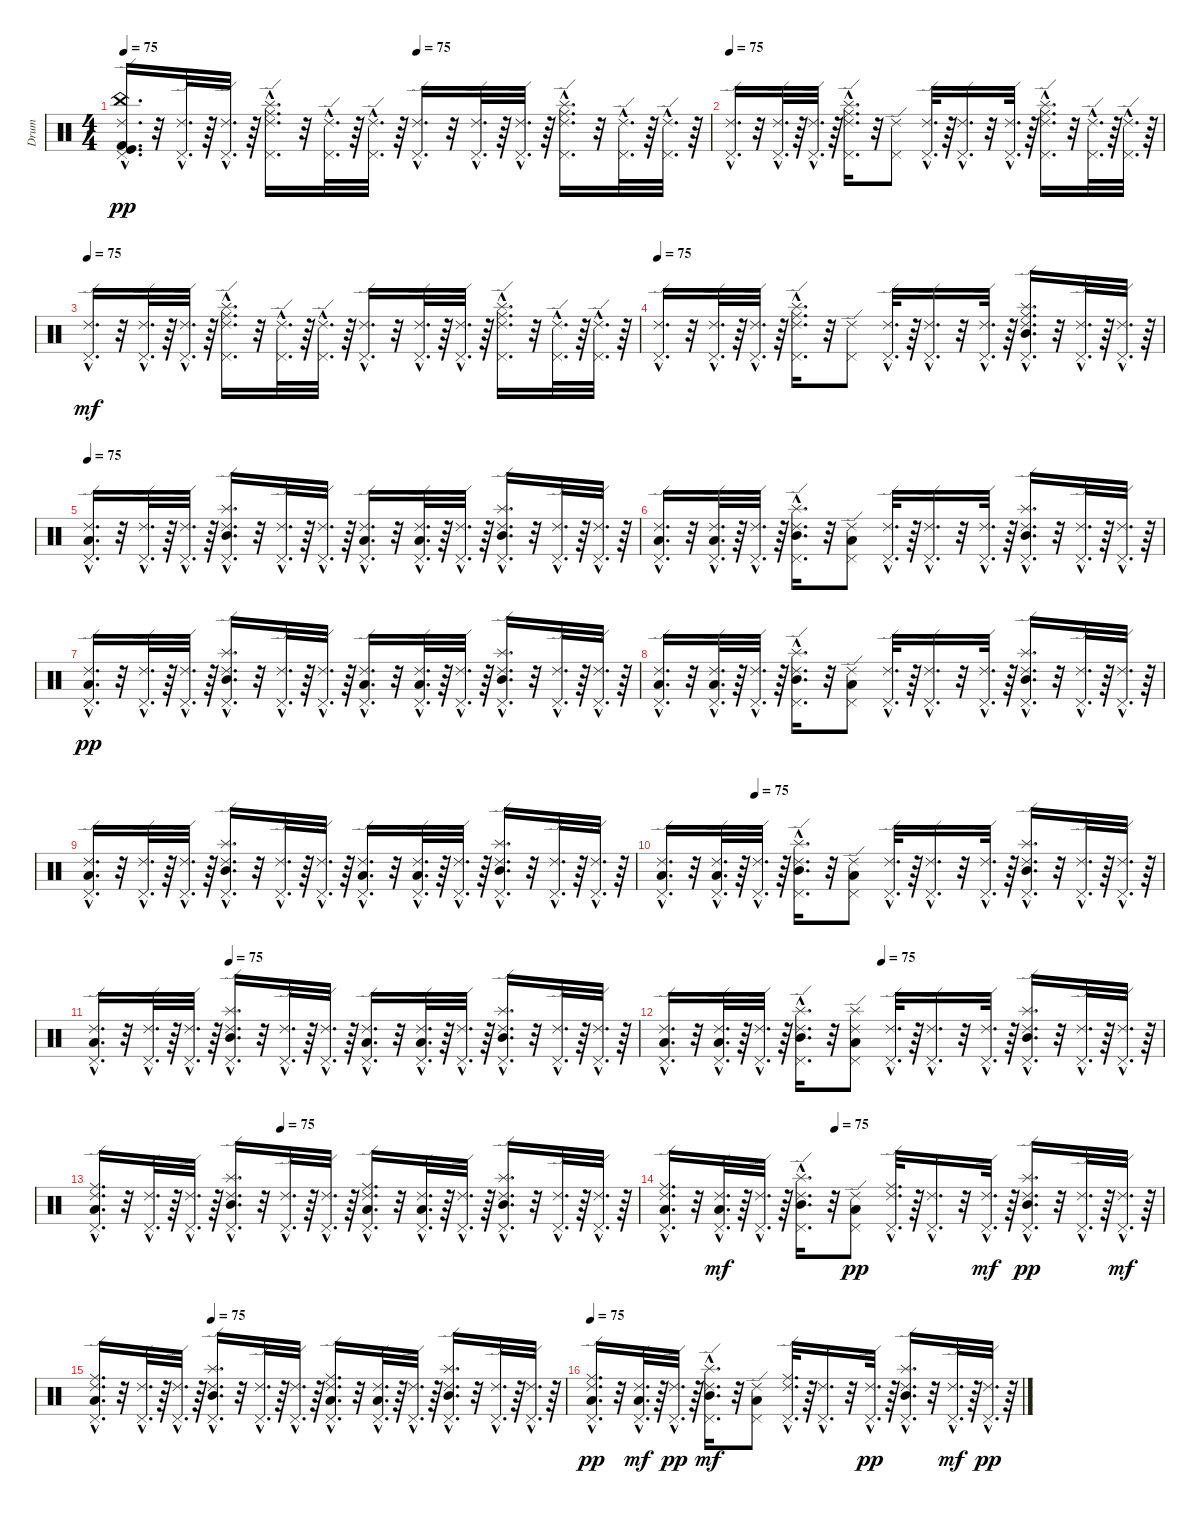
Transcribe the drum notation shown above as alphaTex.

\track ("Drum" "Drum") {instrument percussion}
\staff {score}
\articulation defaults
\ts (4 4)
\tempo 75
\tempo (75 0.5)
\clef neutral
\ks c
("Kick (hit) 2"{hac} "Kick (hit)"{hac} "China (hit)"{hac} "Ride (edge) 2"{hac} "Pedal Hi-Hat (hit)"{hac}).16{d dy pp} r.32 ("Ride (edge) 2"{hac} "Pedal Hi-Hat (hit)"{hac}).32{d} r.64 ("Ride (edge) 2"{hac} "Pedal Hi-Hat (hit)"{hac}).32{d} r.64 ("Ride (middle)"{hac} "Ride (edge) 2"{hac} "Pedal Hi-Hat (hit)"{hac} "Splash (hit)"{hac}).16{d} r.32 ("Ride (edge) 2"{hac} "Pedal Hi-Hat (hit)"{hac}).32{d} r.64 ("Ride (edge) 2"{hac} "Pedal Hi-Hat (hit)"{hac}).32{d} r.64 ("Ride (edge) 2"{hac} "Pedal Hi-Hat (hit)"{hac}).16{d} r.32 ("Ride (edge) 2"{hac} "Pedal Hi-Hat (hit)"{hac}).32{d} r.64 ("Ride (edge) 2"{hac} "Pedal Hi-Hat (hit)"{hac}).32{d} r.64 ("Ride (middle)"{hac} "Ride (edge) 2"{hac} "Pedal Hi-Hat (hit)"{hac} "Splash (hit)"{hac}).16{d} r.32 ("Ride (edge) 2"{hac} "Pedal Hi-Hat (hit)"{hac}).32{d} r.64 ("Ride (edge) 2"{hac} "Pedal Hi-Hat (hit)"{hac}).32{d} r.64 |
\tempo 75
("Ride (edge) 2"{hac} "Pedal Hi-Hat (hit)"{hac}).16{d} r.32 ("Ride (edge) 2"{hac} "Pedal Hi-Hat (hit)"{hac}).32{d} r.64 ("Ride (edge) 2"{hac} "Pedal Hi-Hat (hit)"{hac}).32{d} r.64 ("Ride (middle)"{hac} "Ride (edge) 2"{hac} "Pedal Hi-Hat (hit)"{hac} "Splash (hit)"{hac}).16{d} r.32 ("Ride (edge) 2" "Pedal Hi-Hat (hit)").8 ("Ride (edge) 2"{hac} "Pedal Hi-Hat (hit)"{hac}).32{d} r.64 ("Ride (edge) 2"{hac} "Pedal Hi-Hat (hit)"{hac}).16{d} r.32 ("Ride (edge) 2"{hac} "Pedal Hi-Hat (hit)"{hac}).32{d} r.64 ("Ride (middle)"{hac} "Ride (edge) 2"{hac} "Pedal Hi-Hat (hit)"{hac} "Splash (hit)"{hac}).16{d} r.32 ("Ride (edge) 2"{hac} "Pedal Hi-Hat (hit)"{hac}).32{d} r.64 ("Ride (edge) 2"{hac} "Pedal Hi-Hat (hit)"{hac}).32{d} r.64 |
\tempo 75
("Pedal Hi-Hat (hit)"{hac} "Ride (edge) 2"{hac}).16{d dy mf} r.32 ("Pedal Hi-Hat (hit)"{hac} "Ride (edge) 2"{hac}).32{d} r.64 ("Pedal Hi-Hat (hit)"{hac} "Ride (edge) 2"{hac}).32{d} r.64 ("Splash (hit)"{hac} "Pedal Hi-Hat (hit)"{hac} "Ride (edge) 2"{hac} "Ride (middle)"{hac}).16{d} r.32 ("Pedal Hi-Hat (hit)"{hac} "Ride (edge) 2"{hac}).32{d} r.64 ("Pedal Hi-Hat (hit)"{hac} "Ride (edge) 2"{hac}).32{d} r.64 ("Pedal Hi-Hat (hit)"{hac} "Ride (edge) 2"{hac}).16{d} r.32 ("Pedal Hi-Hat (hit)"{hac} "Ride (edge) 2"{hac}).32{d} r.64 ("Pedal Hi-Hat (hit)"{hac} "Ride (edge) 2"{hac}).32{d} r.64 ("Splash (hit)"{hac} "Pedal Hi-Hat (hit)"{hac} "Ride (edge) 2"{hac} "Ride (middle)"{hac}).16{d} r.32 ("Pedal Hi-Hat (hit)"{hac} "Ride (edge) 2"{hac}).32{d} r.64 ("Pedal Hi-Hat (hit)"{hac} "Ride (edge) 2"{hac}).32{d} r.64 |
\tempo 75
("Pedal Hi-Hat (hit)"{hac} "Ride (edge) 2"{hac}).16{d} r.32 ("Pedal Hi-Hat (hit)"{hac} "Ride (edge) 2"{hac}).32{d} r.64 ("Pedal Hi-Hat (hit)"{hac} "Ride (edge) 2"{hac}).32{d} r.64 ("Splash (hit)"{hac} "Pedal Hi-Hat (hit)"{hac} "Ride (edge) 2"{hac} "Ride (middle)"{hac}).16{d} r.32 ("Pedal Hi-Hat (hit)" "Ride (edge) 2").8 ("Pedal Hi-Hat (hit)"{hac} "Ride (edge) 2"{hac}).32{d} r.64 ("Pedal Hi-Hat (hit)"{hac} "Ride (edge) 2"{hac}).16{d} r.32 ("Pedal Hi-Hat (hit)"{hac} "Ride (edge) 2"{hac}).32{d} r.64 ("Mid Tom (hit)"{hac} "Splash (hit)"{hac} "Pedal Hi-Hat (hit)"{hac} "Ride (edge) 2"{hac} "Ride (middle)"{hac}).16{d} r.32 ("Pedal Hi-Hat (hit)"{hac} "Ride (edge) 2"{hac}).32{d} r.64 ("Pedal Hi-Hat (hit)"{hac} "Ride (edge) 2"{hac}).32{d} r.64 |
\tempo 75
("Low Tom (hit)"{hac} "Pedal Hi-Hat (hit)"{hac} "Ride (edge) 2"{hac}).16{d} r.32 ("Pedal Hi-Hat (hit)"{hac} "Ride (edge) 2"{hac}).32{d} r.64 ("Pedal Hi-Hat (hit)"{hac} "Ride (edge) 2"{hac}).32{d} r.64 ("Mid Tom (hit)"{hac} "Splash (hit)"{hac} "Pedal Hi-Hat (hit)"{hac} "Ride (edge) 2"{hac}).16{d} r.32 ("Pedal Hi-Hat (hit)"{hac} "Ride (edge) 2"{hac}).32{d} r.64 ("Pedal Hi-Hat (hit)"{hac} "Ride (edge) 2"{hac}).32{d} r.64 ("Low Tom (hit)"{hac} "Pedal Hi-Hat (hit)"{hac} "Ride (edge) 2"{hac}).16{d} r.32 ("Low Tom (hit)"{hac} "Pedal Hi-Hat (hit)"{hac} "Ride (edge) 2"{hac}).32{d} r.64 ("Pedal Hi-Hat (hit)"{hac} "Ride (edge) 2"{hac}).32{d} r.64 ("Mid Tom (hit)"{hac} "Splash (hit)"{hac} "Pedal Hi-Hat (hit)"{hac} "Ride (edge) 2"{hac}).16{d} r.32 ("Pedal Hi-Hat (hit)"{hac} "Ride (edge) 2"{hac}).32{d} r.64 ("Pedal Hi-Hat (hit)"{hac} "Ride (edge) 2"{hac}).32{d} r.64 |
("Low Tom (hit)"{hac} "Pedal Hi-Hat (hit)"{hac} "Ride (edge) 2"{hac}).16{d} r.32 ("Low Tom (hit)"{hac} "Pedal Hi-Hat (hit)"{hac} "Ride (edge) 2"{hac}).32{d} r.64 ("Pedal Hi-Hat (hit)"{hac} "Ride (edge) 2"{hac}).32{d} r.64 ("Mid Tom (hit)"{hac} "Splash (hit)"{hac} "Pedal Hi-Hat (hit)"{hac} "Ride (edge) 2"{hac}).16{d} r.32 ("Low Tom (hit)" "Pedal Hi-Hat (hit)" "Ride (edge) 2").8 ("Pedal Hi-Hat (hit)"{hac} "Ride (edge) 2"{hac}).32{d} r.64 ("Pedal Hi-Hat (hit)"{hac} "Ride (edge) 2"{hac}).16{d} r.32 ("Pedal Hi-Hat (hit)"{hac} "Ride (edge) 2"{hac}).32{d} r.64 ("Mid Tom (hit)"{hac} "Splash (hit)"{hac} "Pedal Hi-Hat (hit)"{hac} "Ride (edge) 2"{hac}).16{d} r.32 ("Pedal Hi-Hat (hit)"{hac} "Ride (edge) 2"{hac}).32{d} r.64 ("Pedal Hi-Hat (hit)"{hac} "Ride (edge) 2"{hac}).32{d} r.64 |
("Ride (edge) 2"{hac} "Pedal Hi-Hat (hit)"{hac} "Low Tom (hit)"{hac}).16{d dy pp} r.32 ("Ride (edge) 2"{hac} "Pedal Hi-Hat (hit)"{hac}).32{d} r.64 ("Ride (edge) 2"{hac} "Pedal Hi-Hat (hit)"{hac}).32{d} r.64 ("Ride (edge) 2"{hac} "Pedal Hi-Hat (hit)"{hac} "Splash (hit)"{hac} "Mid Tom (hit)"{hac}).16{d} r.32 ("Ride (edge) 2"{hac} "Pedal Hi-Hat (hit)"{hac}).32{d} r.64 ("Ride (edge) 2"{hac} "Pedal Hi-Hat (hit)"{hac}).32{d} r.64 ("Ride (edge) 2"{hac} "Pedal Hi-Hat (hit)"{hac} "Low Tom (hit)"{hac}).16{d} r.32 ("Ride (edge) 2"{hac} "Pedal Hi-Hat (hit)"{hac} "Low Tom (hit)"{hac}).32{d} r.64 ("Ride (edge) 2"{hac} "Pedal Hi-Hat (hit)"{hac}).32{d} r.64 ("Ride (edge) 2"{hac} "Pedal Hi-Hat (hit)"{hac} "Splash (hit)"{hac} "Mid Tom (hit)"{hac}).16{d} r.32 ("Ride (edge) 2"{hac} "Pedal Hi-Hat (hit)"{hac}).32{d} r.64 ("Ride (edge) 2"{hac} "Pedal Hi-Hat (hit)"{hac}).32{d} r.64 |
("Ride (edge) 2"{hac} "Pedal Hi-Hat (hit)"{hac} "Low Tom (hit)"{hac}).16{d} r.32 ("Ride (edge) 2"{hac} "Pedal Hi-Hat (hit)"{hac} "Low Tom (hit)"{hac}).32{d} r.64 ("Ride (edge) 2"{hac} "Pedal Hi-Hat (hit)"{hac}).32{d} r.64 ("Ride (edge) 2"{hac} "Pedal Hi-Hat (hit)"{hac} "Splash (hit)"{hac} "Mid Tom (hit)"{hac}).16{d} r.32 ("Ride (edge) 2" "Pedal Hi-Hat (hit)" "Low Tom (hit)").8 ("Ride (edge) 2"{hac} "Pedal Hi-Hat (hit)"{hac}).32{d} r.64 ("Ride (edge) 2"{hac} "Pedal Hi-Hat (hit)"{hac}).16{d} r.32 ("Ride (edge) 2"{hac} "Pedal Hi-Hat (hit)"{hac}).32{d} r.64 ("Ride (edge) 2"{hac} "Pedal Hi-Hat (hit)"{hac} "Splash (hit)"{hac} "Mid Tom (hit)"{hac}).16{d} r.32 ("Ride (edge) 2"{hac} "Pedal Hi-Hat (hit)"{hac}).32{d} r.64 ("Ride (edge) 2"{hac} "Pedal Hi-Hat (hit)"{hac}).32{d} r.64 |
("Ride (edge) 2"{hac} "Pedal Hi-Hat (hit)"{hac} "Low Tom (hit)"{hac}).16{d} r.32 ("Ride (edge) 2"{hac} "Pedal Hi-Hat (hit)"{hac}).32{d} r.64 ("Ride (edge) 2"{hac} "Pedal Hi-Hat (hit)"{hac}).32{d} r.64 ("Ride (edge) 2"{hac} "Pedal Hi-Hat (hit)"{hac} "Splash (hit)"{hac} "Mid Tom (hit)"{hac}).16{d} r.32 ("Ride (edge) 2"{hac} "Pedal Hi-Hat (hit)"{hac}).32{d} r.64 ("Ride (edge) 2"{hac} "Pedal Hi-Hat (hit)"{hac}).32{d} r.64 ("Ride (edge) 2"{hac} "Pedal Hi-Hat (hit)"{hac} "Low Tom (hit)"{hac}).16{d} r.32 ("Ride (edge) 2"{hac} "Pedal Hi-Hat (hit)"{hac} "Low Tom (hit)"{hac}).32{d} r.64 ("Ride (edge) 2"{hac} "Pedal Hi-Hat (hit)"{hac}).32{d} r.64 ("Ride (edge) 2"{hac} "Pedal Hi-Hat (hit)"{hac} "Splash (hit)"{hac} "Mid Tom (hit)"{hac}).16{d} r.32 ("Ride (edge) 2"{hac} "Pedal Hi-Hat (hit)"{hac}).32{d} r.64 ("Ride (edge) 2"{hac} "Pedal Hi-Hat (hit)"{hac}).32{d} r.64 |
\tempo (75 0.1875)
("Ride (edge) 2"{hac} "Pedal Hi-Hat (hit)"{hac} "Low Tom (hit)"{hac}).16{d} r.32 ("Ride (edge) 2"{hac} "Pedal Hi-Hat (hit)"{hac} "Low Tom (hit)"{hac}).32{d} r.64 ("Ride (edge) 2"{hac} "Pedal Hi-Hat (hit)"{hac}).32{d} r.64 ("Ride (edge) 2"{hac} "Pedal Hi-Hat (hit)"{hac} "Splash (hit)"{hac} "Mid Tom (hit)"{hac}).16{d} r.32 ("Ride (edge) 2" "Pedal Hi-Hat (hit)" "Low Tom (hit)").8 ("Ride (edge) 2"{hac} "Pedal Hi-Hat (hit)"{hac}).32{d} r.64 ("Ride (edge) 2"{hac} "Pedal Hi-Hat (hit)"{hac}).16{d} r.32 ("Ride (edge) 2"{hac} "Pedal Hi-Hat (hit)"{hac}).32{d} r.64 ("Ride (edge) 2"{hac} "Pedal Hi-Hat (hit)"{hac} "Splash (hit)"{hac} "Mid Tom (hit)"{hac}).16{d} r.32 ("Ride (edge) 2"{hac} "Pedal Hi-Hat (hit)"{hac}).32{d} r.64 ("Ride (edge) 2"{hac} "Pedal Hi-Hat (hit)"{hac}).32{d} r.64 |
\tempo (75 0.25)
("Ride (edge) 2"{hac} "Pedal Hi-Hat (hit)"{hac} "Low Tom (hit)"{hac}).16{d} r.32 ("Ride (edge) 2"{hac} "Pedal Hi-Hat (hit)"{hac}).32{d} r.64 ("Ride (edge) 2"{hac} "Pedal Hi-Hat (hit)"{hac}).32{d} r.64 ("Ride (edge) 2"{hac} "Pedal Hi-Hat (hit)"{hac} "Splash (hit)"{hac} "Mid Tom (hit)"{hac}).16{d} r.32 ("Ride (edge) 2"{hac} "Pedal Hi-Hat (hit)"{hac}).32{d} r.64 ("Ride (edge) 2"{hac} "Pedal Hi-Hat (hit)"{hac}).32{d} r.64 ("Ride (edge) 2"{hac} "Pedal Hi-Hat (hit)"{hac} "Low Tom (hit)"{hac}).16{d} r.32 ("Ride (edge) 2"{hac} "Pedal Hi-Hat (hit)"{hac} "Low Tom (hit)"{hac}).32{d} r.64 ("Ride (edge) 2"{hac} "Pedal Hi-Hat (hit)"{hac}).32{d} r.64 ("Ride (edge) 2"{hac} "Pedal Hi-Hat (hit)"{hac} "Splash (hit)"{hac} "Mid Tom (hit)"{hac}).16{d} r.32 ("Ride (edge) 2"{hac} "Pedal Hi-Hat (hit)"{hac}).32{d} r.64 ("Ride (edge) 2"{hac} "Pedal Hi-Hat (hit)"{hac}).32{d} r.64 |
\tempo (75 0.4375)
("Ride (edge) 2"{hac} "Pedal Hi-Hat (hit)"{hac} "Low Tom (hit)"{hac}).16{d} r.32 ("Ride (edge) 2"{hac} "Pedal Hi-Hat (hit)"{hac} "Low Tom (hit)"{hac}).32{d} r.64 ("Ride (edge) 2"{hac} "Pedal Hi-Hat (hit)"{hac}).32{d} r.64 ("Ride (edge) 2"{hac} "Pedal Hi-Hat (hit)"{hac} "Splash (hit)"{hac} "Mid Tom (hit)"{hac}).16{d} r.32 ("Splash (hit)" "Ride (edge) 2" "Pedal Hi-Hat (hit)" "Low Tom (hit)").8 ("Ride (edge) 2"{hac} "Pedal Hi-Hat (hit)"{hac}).32{d} r.64 ("Ride (edge) 2"{hac} "Pedal Hi-Hat (hit)"{hac}).16{d} r.32 ("Ride (edge) 2"{hac} "Pedal Hi-Hat (hit)"{hac}).32{d} r.64 ("Ride (edge) 2"{hac} "Pedal Hi-Hat (hit)"{hac} "Splash (hit)"{hac} "Mid Tom (hit)"{hac}).16{d} r.32 ("Ride (edge) 2"{hac} "Pedal Hi-Hat (hit)"{hac}).32{d} r.64 ("Ride (edge) 2"{hac} "Pedal Hi-Hat (hit)"{hac}).32{d} r.64 |
\tempo (75 0.34375)
("Ride (middle)"{hac} "Ride (edge) 2"{hac} "Pedal Hi-Hat (hit)"{hac} "Low Tom (hit)"{hac}).16{d} r.32 ("Ride (edge) 2"{hac} "Pedal Hi-Hat (hit)"{hac}).32{d} r.64 ("Ride (edge) 2"{hac} "Pedal Hi-Hat (hit)"{hac}).32{d} r.64 ("Ride (edge) 2"{hac} "Pedal Hi-Hat (hit)"{hac} "Splash (hit)"{hac} "Mid Tom (hit)"{hac}).16{d} r.32 ("Ride (edge) 2"{hac} "Pedal Hi-Hat (hit)"{hac}).32{d} r.64 ("Ride (edge) 2"{hac} "Pedal Hi-Hat (hit)"{hac}).32{d} r.64 ("Ride (middle)"{hac} "Ride (edge) 2"{hac} "Pedal Hi-Hat (hit)"{hac} "Low Tom (hit)"{hac}).16{d} r.32 ("Ride (edge) 2"{hac} "Pedal Hi-Hat (hit)"{hac} "Low Tom (hit)"{hac}).32{d} r.64 ("Ride (edge) 2"{hac} "Pedal Hi-Hat (hit)"{hac}).32{d} r.64 ("Ride (edge) 2"{hac} "Pedal Hi-Hat (hit)"{hac} "Splash (hit)"{hac} "Mid Tom (hit)"{hac}).16{d} r.32 ("Ride (edge) 2"{hac} "Pedal Hi-Hat (hit)"{hac}).32{d} r.64 ("Ride (edge) 2"{hac} "Pedal Hi-Hat (hit)"{hac}).32{d} r.64 |
\tempo (75 0.34375)
("Ride (middle)"{hac} "Ride (edge) 2"{hac} "Low Tom (hit)"{hac} "Pedal Hi-Hat (hit)"{hac}).16{d} r.32 ("Pedal Hi-Hat (hit)"{hac} "Ride (edge) 2"{hac} "Low Tom (hit)"{hac}).32{d dy mf} r.64 ("Pedal Hi-Hat (hit)"{hac} "Ride (edge) 2"{hac}).32{d} r.64 ("Pedal Hi-Hat (hit)"{hac} "Splash (hit)"{hac} "Ride (edge) 2"{hac} "Mid Tom (hit)"{hac}).16{d} r.32 ("Ride (edge) 2" "Pedal Hi-Hat (hit)" "Low Tom (hit)").8{dy pp} ("Ride (edge) 2"{hac} "Pedal Hi-Hat (hit)"{hac} "Ride (middle)"{hac}).32{d} r.64 ("Ride (edge) 2"{hac} "Pedal Hi-Hat (hit)"{hac}).16{d} r.32 ("Pedal Hi-Hat (hit)"{hac} "Ride (edge) 2"{hac}).32{d dy mf} r.64 ("Mid Tom (hit)"{hac} "Pedal Hi-Hat (hit)"{hac} "Ride (edge) 2"{hac} "Splash (hit)"{hac}).16{d dy pp} r.32 ("Ride (edge) 2"{hac} "Pedal Hi-Hat (hit)"{hac}).32{d} r.64 ("Pedal Hi-Hat (hit)"{hac} "Ride (edge) 2"{hac}).32{d dy mf} r.64 |
\tempo (75 0.25)
("Ride (middle)"{hac} "Low Tom (hit)"{hac} "Pedal Hi-Hat (hit)"{hac} "Ride (edge) 2"{hac}).16{d} r.32 ("Pedal Hi-Hat (hit)"{hac} "Ride (edge) 2"{hac}).32{d} r.64 ("Pedal Hi-Hat (hit)"{hac} "Ride (edge) 2"{hac}).32{d} r.64 ("Mid Tom (hit)"{hac} "Splash (hit)"{hac} "Pedal Hi-Hat (hit)"{hac} "Ride (edge) 2"{hac}).16{d} r.32 ("Pedal Hi-Hat (hit)"{hac} "Ride (edge) 2"{hac}).32{d} r.64 ("Pedal Hi-Hat (hit)"{hac} "Ride (edge) 2"{hac}).32{d} r.64 ("Ride (middle)"{hac} "Low Tom (hit)"{hac} "Pedal Hi-Hat (hit)"{hac} "Ride (edge) 2"{hac}).16{d} r.32 ("Low Tom (hit)"{hac} "Pedal Hi-Hat (hit)"{hac} "Ride (edge) 2"{hac}).32{d} r.64 ("Pedal Hi-Hat (hit)"{hac} "Ride (edge) 2"{hac}).32{d} r.64 ("Mid Tom (hit)"{hac} "Splash (hit)"{hac} "Pedal Hi-Hat (hit)"{hac} "Ride (edge) 2"{hac}).16{d} r.32 ("Pedal Hi-Hat (hit)"{hac} "Ride (edge) 2"{hac}).32{d} r.64 ("Pedal Hi-Hat (hit)"{hac} "Ride (edge) 2"{hac}).32{d} r.64 |
\tempo 75
("Ride (middle)"{hac} "Low Tom (hit)"{hac} "Ride (edge) 2"{hac} "Pedal Hi-Hat (hit)"{hac}).16{d dy pp} r.32 ("Pedal Hi-Hat (hit)"{hac} "Low Tom (hit)"{hac} "Ride (edge) 2"{hac}).32{d dy mf} r.64 ("Ride (edge) 2"{hac} "Pedal Hi-Hat (hit)"{hac}).32{d dy pp} r.64 ("Splash (hit)"{hac} "Pedal Hi-Hat (hit)"{hac} "Mid Tom (hit)"{hac} "Ride (edge) 2"{hac}).16{d dy mf} r.32 ("Low Tom (hit)" "Pedal Hi-Hat (hit)" "Ride (edge) 2").8 ("Pedal Hi-Hat (hit)"{hac} "Ride (edge) 2"{hac} "Ride (middle)"{hac}).32{d} r.64 ("Pedal Hi-Hat (hit)"{hac} "Ride (edge) 2"{hac}).16{d} r.32 ("Ride (edge) 2"{hac} "Pedal Hi-Hat (hit)"{hac}).32{d dy pp} r.64 ("Ride (edge) 2"{hac} "Mid Tom (hit)"{hac} "Splash (hit)"{hac} "Pedal Hi-Hat (hit)"{hac}).16{d} r.32 ("Pedal Hi-Hat (hit)"{hac} "Ride (edge) 2"{hac}).32{d dy mf} r.64 ("Ride (edge) 2"{hac} "Pedal Hi-Hat (hit)"{hac}).32{d dy pp} r.64
